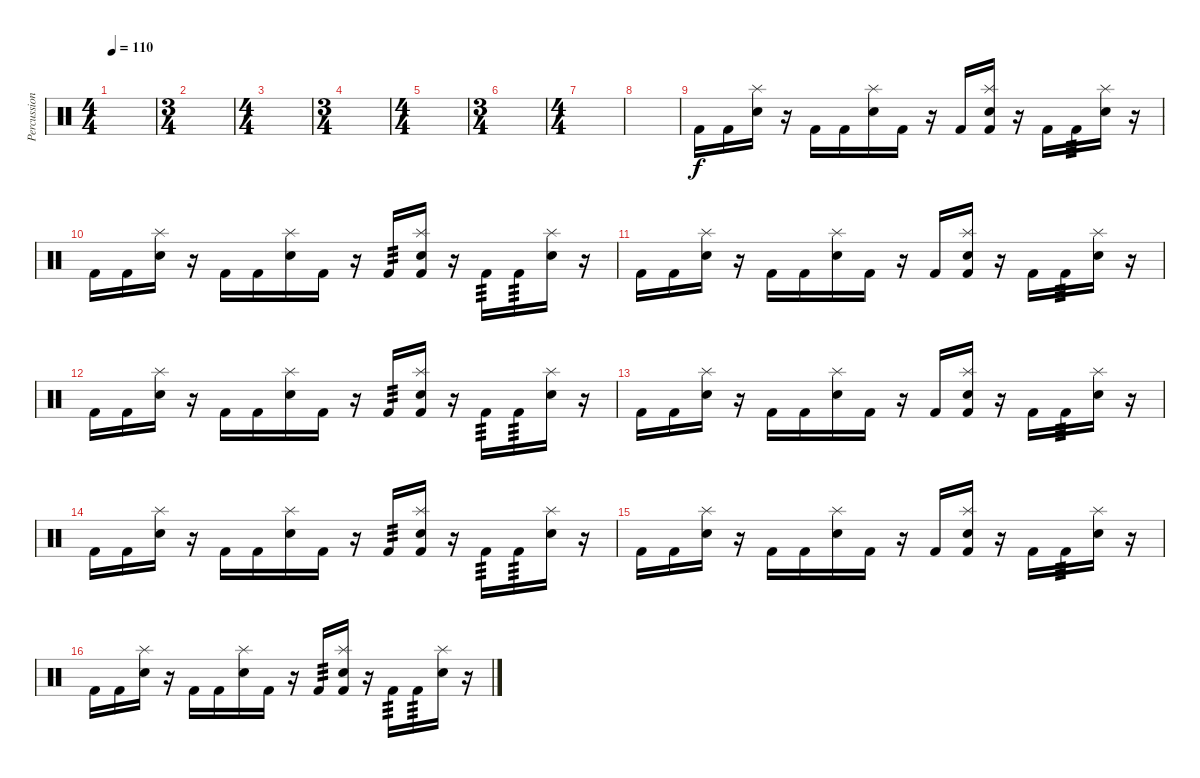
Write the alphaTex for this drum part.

\track ("Percussion" "Percussion") {instrument percussion}
\staff {score}
\articulation defaults
\ts (4 4)
\tempo 110
\clef neutral
\ks c
|
\ts (3 4)
|
\ts (4 4)
|
\ts (3 4)
|
\ts (4 4)
|
\ts (3 4)
|
\ts (4 4)
|
|
"Kick (hit) 2".16 "Kick (hit) 2".16 ("Splash (hit)" "Electric Snare (hit)").16 r.16 "Kick (hit) 2".16 "Kick (hit) 2".16 ("Splash (hit)" "Electric Snare (hit)").16 "Kick (hit) 2".16 r.16 "Kick (hit) 2".16 ("Splash (hit)" "Electric Snare (hit)" "Kick (hit) 2").16 r.16 "Kick (hit) 2".16 "Kick (hit) 2".16{tp 3} ("Splash (hit)" "Electric Snare (hit)").16 r.16 |
"Kick (hit) 2".16 "Kick (hit) 2".16 ("Splash (hit)" "Electric Snare (hit)").16 r.16 "Kick (hit) 2".16 "Kick (hit) 2".16 ("Splash (hit)" "Electric Snare (hit)").16 "Kick (hit) 2".16 r.16 "Kick (hit) 2".16{tp 3} ("Splash (hit)" "Electric Snare (hit)" "Kick (hit) 2").16 r.16 "Kick (hit) 2".16{tp 3} "Kick (hit) 2".16{tp 3} ("Splash (hit)" "Electric Snare (hit)").16 r.16 |
"Kick (hit) 2".16 "Kick (hit) 2".16 ("Splash (hit)" "Electric Snare (hit)").16 r.16 "Kick (hit) 2".16 "Kick (hit) 2".16 ("Splash (hit)" "Electric Snare (hit)").16 "Kick (hit) 2".16 r.16 "Kick (hit) 2".16 ("Splash (hit)" "Electric Snare (hit)" "Kick (hit) 2").16 r.16 "Kick (hit) 2".16 "Kick (hit) 2".16{tp 3} ("Splash (hit)" "Electric Snare (hit)").16 r.16 |
"Kick (hit) 2".16 "Kick (hit) 2".16 ("Splash (hit)" "Electric Snare (hit)").16 r.16 "Kick (hit) 2".16 "Kick (hit) 2".16 ("Splash (hit)" "Electric Snare (hit)").16 "Kick (hit) 2".16 r.16 "Kick (hit) 2".16{tp 3} ("Splash (hit)" "Electric Snare (hit)" "Kick (hit) 2").16 r.16 "Kick (hit) 2".16{tp 3} "Kick (hit) 2".16{tp 3} ("Splash (hit)" "Electric Snare (hit)").16 r.16 |
"Kick (hit) 2".16 "Kick (hit) 2".16 ("Splash (hit)" "Electric Snare (hit)").16 r.16 "Kick (hit) 2".16 "Kick (hit) 2".16 ("Splash (hit)" "Electric Snare (hit)").16 "Kick (hit) 2".16 r.16 "Kick (hit) 2".16 ("Splash (hit)" "Electric Snare (hit)" "Kick (hit) 2").16 r.16 "Kick (hit) 2".16 "Kick (hit) 2".16{tp 3} ("Splash (hit)" "Electric Snare (hit)").16 r.16 |
"Kick (hit) 2".16 "Kick (hit) 2".16 ("Splash (hit)" "Electric Snare (hit)").16 r.16 "Kick (hit) 2".16 "Kick (hit) 2".16 ("Splash (hit)" "Electric Snare (hit)").16 "Kick (hit) 2".16 r.16 "Kick (hit) 2".16{tp 3} ("Splash (hit)" "Electric Snare (hit)" "Kick (hit) 2").16 r.16 "Kick (hit) 2".16{tp 3} "Kick (hit) 2".16{tp 3} ("Splash (hit)" "Electric Snare (hit)").16 r.16 |
"Kick (hit) 2".16 "Kick (hit) 2".16 ("Splash (hit)" "Electric Snare (hit)").16 r.16 "Kick (hit) 2".16 "Kick (hit) 2".16 ("Splash (hit)" "Electric Snare (hit)").16 "Kick (hit) 2".16 r.16 "Kick (hit) 2".16 ("Splash (hit)" "Electric Snare (hit)" "Kick (hit) 2").16 r.16 "Kick (hit) 2".16 "Kick (hit) 2".16{tp 3} ("Splash (hit)" "Electric Snare (hit)").16 r.16 |
"Kick (hit) 2".16 "Kick (hit) 2".16 ("Splash (hit)" "Electric Snare (hit)").16 r.16 "Kick (hit) 2".16 "Kick (hit) 2".16 ("Splash (hit)" "Electric Snare (hit)").16 "Kick (hit) 2".16 r.16 "Kick (hit) 2".16{tp 3} ("Splash (hit)" "Electric Snare (hit)" "Kick (hit) 2").16 r.16 "Kick (hit) 2".16{tp 3} "Kick (hit) 2".16{tp 3} ("Splash (hit)" "Electric Snare (hit)").16 r.16
